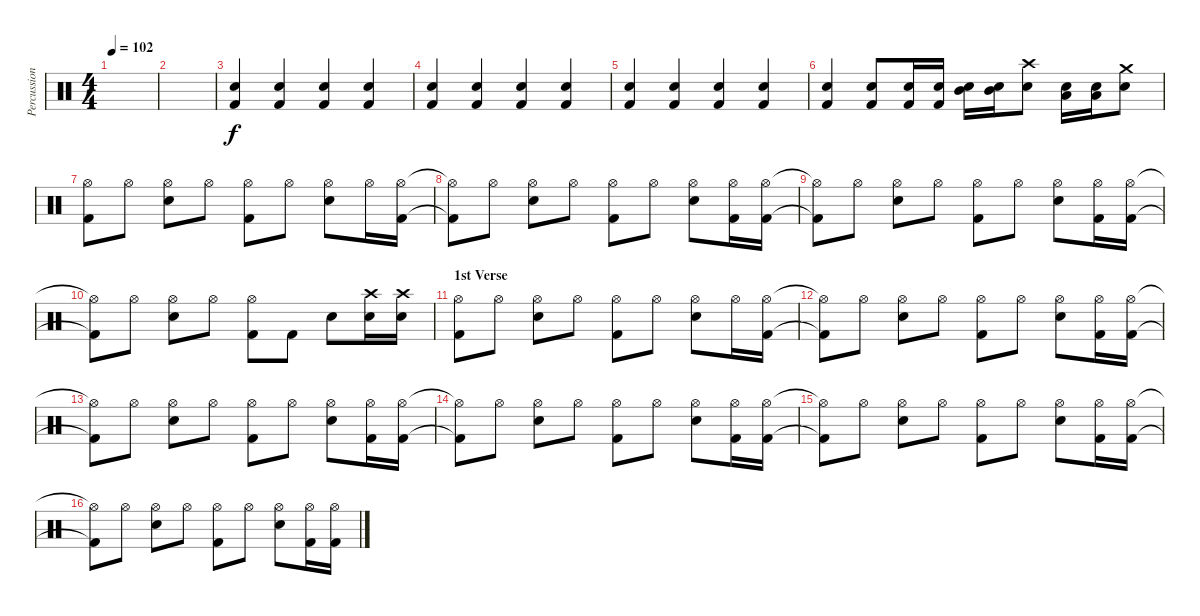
\track ("Percussion" "Percussion") {instrument percussion}
\staff {score}
\articulation defaults
\ts (4 4)
\tempo 102
\clef neutral
\ks c
|
|
("Snare (hit) 2" "Kick (hit) 2").4 ("Snare (hit) 2" "Kick (hit) 2").4 ("Snare (hit) 2" "Kick (hit) 2").4 ("Snare (hit) 2" "Kick (hit) 2").4 |
("Snare (hit) 2" "Kick (hit) 2").4 ("Snare (hit) 2" "Kick (hit) 2").4 ("Snare (hit) 2" "Kick (hit) 2").4 ("Snare (hit) 2" "Kick (hit) 2").4 |
("Snare (hit) 2" "Kick (hit) 2").4 ("Snare (hit) 2" "Kick (hit) 2").4 ("Snare (hit) 2" "Kick (hit) 2").4 ("Snare (hit) 2" "Kick (hit) 2").4 |
("Snare (hit) 2" "Kick (hit) 2").4 ("Snare (hit) 2" "Kick (hit) 2").8 ("Snare (hit) 2" "Kick (hit) 2").16 ("Snare (hit) 2" "Kick (hit) 2").16 ("Mid Tom (hit)" "Snare (hit) 2").16 ("Mid Tom (hit)" "Snare (hit) 2").16 ("Crash high (hit)" "Snare (hit) 2").8 ("Low Tom (hit)" "Snare (hit) 2").16 ("Low Tom (hit)" "Snare (hit) 2").16 ("Crash medium (hit)" "Snare (hit) 2").8 |
("Hi-Hat (open)" "Kick (hit) 2").8 "Hi-Hat (open)".8 ("Hi-Hat (open)" "Snare (hit) 2").8 "Hi-Hat (open)".8 ("Hi-Hat (open)" "Kick (hit) 2").8 "Hi-Hat (open)".8 ("Hi-Hat (open)" "Snare (hit) 2").8 "Hi-Hat (open)".16 ("Hi-Hat (open)" "Kick (hit) 2").16 |
("Hi-Hat (open)"{t} "Kick (hit) 2"{t}).8 "Hi-Hat (open)".8 ("Hi-Hat (open)" "Snare (hit) 2").8 "Hi-Hat (open)".8 ("Hi-Hat (open)" "Kick (hit) 2").8 "Hi-Hat (open)".8 ("Hi-Hat (open)" "Snare (hit) 2").8 ("Hi-Hat (open)" "Kick (hit) 2").16 ("Hi-Hat (open)" "Kick (hit) 2").16 |
("Hi-Hat (open)"{t} "Kick (hit) 2"{t}).8 "Hi-Hat (open)".8 ("Hi-Hat (open)" "Snare (hit) 2").8 "Hi-Hat (open)".8 ("Hi-Hat (open)" "Kick (hit) 2").8 "Hi-Hat (open)".8 ("Hi-Hat (open)" "Snare (hit) 2").8 ("Hi-Hat (open)" "Kick (hit) 2").16 ("Hi-Hat (open)" "Kick (hit) 2").16 |
("Hi-Hat (open)"{t} "Kick (hit) 2"{t}).8 "Hi-Hat (open)".8 ("Hi-Hat (open)" "Snare (hit) 2").8 "Hi-Hat (open)".8 ("Hi-Hat (open)" "Kick (hit) 2").8 "Kick (hit) 2".8 "Snare (hit) 2".8 ("Crash high (hit)" "Snare (hit) 2").16 ("Crash high (hit)" "Snare (hit) 2").16 |
\section ("" "1st Verse")
("Hi-Hat (open)" "Kick (hit) 2").8 "Hi-Hat (open)".8 ("Hi-Hat (open)" "Snare (hit) 2").8 "Hi-Hat (open)".8 ("Hi-Hat (open)" "Kick (hit) 2").8 "Hi-Hat (open)".8 ("Hi-Hat (open)" "Snare (hit) 2").8 "Hi-Hat (open)".16 ("Hi-Hat (open)" "Kick (hit) 2").16 |
("Hi-Hat (open)"{t} "Kick (hit) 2"{t}).8 "Hi-Hat (open)".8 ("Hi-Hat (open)" "Snare (hit) 2").8 "Hi-Hat (open)".8 ("Hi-Hat (open)" "Kick (hit) 2").8 "Hi-Hat (open)".8 ("Hi-Hat (open)" "Snare (hit) 2").8 ("Hi-Hat (open)" "Kick (hit) 2").16 ("Hi-Hat (open)" "Kick (hit) 2").16 |
("Hi-Hat (open)"{t} "Kick (hit) 2"{t}).8 "Hi-Hat (open)".8 ("Hi-Hat (open)" "Snare (hit) 2").8 "Hi-Hat (open)".8 ("Hi-Hat (open)" "Kick (hit) 2").8 "Hi-Hat (open)".8 ("Hi-Hat (open)" "Snare (hit) 2").8 ("Hi-Hat (open)" "Kick (hit) 2").16 ("Hi-Hat (open)" "Kick (hit) 2").16 |
("Hi-Hat (open)"{t} "Kick (hit) 2"{t}).8 "Hi-Hat (open)".8 ("Hi-Hat (open)" "Snare (hit) 2").8 "Hi-Hat (open)".8 ("Hi-Hat (open)" "Kick (hit) 2").8 "Hi-Hat (open)".8 ("Hi-Hat (open)" "Snare (hit) 2").8 ("Hi-Hat (open)" "Kick (hit) 2").16 ("Hi-Hat (open)" "Kick (hit) 2").16 |
("Hi-Hat (open)"{t} "Kick (hit) 2"{t}).8 "Hi-Hat (open)".8 ("Hi-Hat (open)" "Snare (hit) 2").8 "Hi-Hat (open)".8 ("Hi-Hat (open)" "Kick (hit) 2").8 "Hi-Hat (open)".8 ("Hi-Hat (open)" "Snare (hit) 2").8 ("Hi-Hat (open)" "Kick (hit) 2").16 ("Hi-Hat (open)" "Kick (hit) 2").16 |
("Hi-Hat (open)"{t} "Kick (hit) 2"{t}).8 "Hi-Hat (open)".8 ("Hi-Hat (open)" "Snare (hit) 2").8 "Hi-Hat (open)".8 ("Hi-Hat (open)" "Kick (hit) 2").8 "Hi-Hat (open)".8 ("Hi-Hat (open)" "Snare (hit) 2").8 ("Hi-Hat (open)" "Kick (hit) 2").16 ("Hi-Hat (open)" "Kick (hit) 2").16
